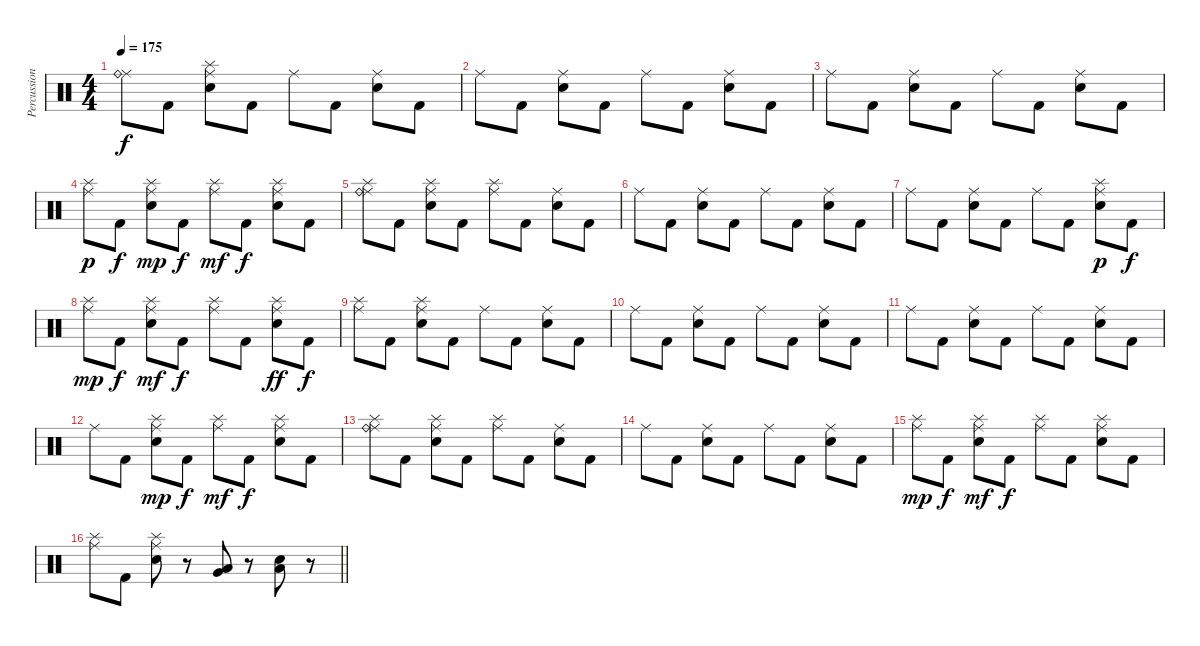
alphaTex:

\track ("Percussion" "Percussion") {instrument percussion}
\staff {score}
\articulation defaults
\ts (4 4)
\section ("" "")
\tempo 175
\clef neutral
\ks c
("Ride (middle)" "Ride (bell)").8{dy f} "Kick (hit) 2".8 ("Ride (middle)" "Splash (hit)" "Electric Snare (hit)").8 "Kick (hit) 2".8 "Ride (middle)".8 "Kick (hit) 2".8 ("Ride (middle)" "Electric Snare (hit)").8 "Kick (hit) 2".8 |
"Ride (middle)".8 "Kick (hit) 2".8 ("Ride (middle)" "Electric Snare (hit)").8 "Kick (hit) 2".8 "Ride (middle)".8 "Kick (hit) 2".8 ("Ride (middle)" "Electric Snare (hit)").8 "Kick (hit) 2".8 |
"Ride (middle)".8 "Kick (hit) 2".8 ("Ride (middle)" "Electric Snare (hit)").8 "Kick (hit) 2".8 "Ride (middle)".8 "Kick (hit) 2".8 ("Ride (middle)" "Electric Snare (hit)").8 "Kick (hit) 2".8 |
("Ride (middle)" "Splash (hit)").8{dy p} "Kick (hit) 2".8{dy f} ("Ride (middle)" "Splash (hit)" "Electric Snare (hit)").8{dy mp} "Kick (hit) 2".8{dy f} ("Ride (middle)" "Splash (hit)").8{dy mf} "Kick (hit) 2".8{dy f} ("Ride (middle)" "Splash (hit)" "Electric Snare (hit)").8 "Kick (hit) 2".8 |
("Ride (middle)" "Splash (hit)" "Ride (bell)").8 "Kick (hit) 2".8 ("Ride (middle)" "Splash (hit)" "Electric Snare (hit)").8 "Kick (hit) 2".8 ("Ride (middle)" "Splash (hit)").8 "Kick (hit) 2".8 ("Ride (middle)" "Electric Snare (hit)").8 "Kick (hit) 2".8 |
"Ride (middle)".8 "Kick (hit) 2".8 ("Ride (middle)" "Electric Snare (hit)").8 "Kick (hit) 2".8 "Ride (middle)".8 "Kick (hit) 2".8 ("Ride (middle)" "Electric Snare (hit)").8 "Kick (hit) 2".8 |
"Ride (middle)".8 "Kick (hit) 2".8 ("Ride (middle)" "Electric Snare (hit)").8 "Kick (hit) 2".8 "Ride (middle)".8 "Kick (hit) 2".8 ("Ride (middle)" "Splash (hit)" "Electric Snare (hit)").8{dy p} "Kick (hit) 2".8{dy f} |
("Ride (middle)" "Splash (hit)").8{dy mp} "Kick (hit) 2".8{dy f} ("Ride (middle)" "Splash (hit)" "Electric Snare (hit)").8{dy mf} "Kick (hit) 2".8{dy f} ("Ride (middle)" "Splash (hit)").8 "Kick (hit) 2".8 ("Ride (middle)" "Splash (hit)" "Electric Snare (hit)").8{dy ff} "Kick (hit) 2".8{dy f} |
("Ride (middle)" "Splash (hit)").8 "Kick (hit) 2".8 ("Ride (middle)" "Splash (hit)" "Electric Snare (hit)").8 "Kick (hit) 2".8 "Ride (middle)".8 "Kick (hit) 2".8 ("Ride (middle)" "Electric Snare (hit)").8 "Kick (hit) 2".8 |
"Ride (middle)".8 "Kick (hit) 2".8 ("Ride (middle)" "Electric Snare (hit)").8 "Kick (hit) 2".8 "Ride (middle)".8 "Kick (hit) 2".8 ("Ride (middle)" "Electric Snare (hit)").8 "Kick (hit) 2".8 |
"Ride (middle)".8 "Kick (hit) 2".8 ("Ride (middle)" "Electric Snare (hit)").8 "Kick (hit) 2".8 "Ride (middle)".8 "Kick (hit) 2".8 ("Ride (middle)" "Electric Snare (hit)").8 "Kick (hit) 2".8 |
"Ride (middle)".8 "Kick (hit) 2".8 ("Ride (middle)" "Splash (hit)" "Electric Snare (hit)").8{dy mp} "Kick (hit) 2".8{dy f} ("Ride (middle)" "Splash (hit)").8{dy mf} "Kick (hit) 2".8{dy f} ("Ride (middle)" "Splash (hit)" "Electric Snare (hit)").8 "Kick (hit) 2".8 |
("Ride (middle)" "Splash (hit)" "Ride (bell)").8 "Kick (hit) 2".8 ("Ride (middle)" "Splash (hit)" "Electric Snare (hit)").8 "Kick (hit) 2".8 ("Ride (middle)" "Splash (hit)").8 "Kick (hit) 2".8 ("Ride (middle)" "Electric Snare (hit)").8 "Kick (hit) 2".8 |
"Ride (middle)".8 "Kick (hit) 2".8 ("Ride (middle)" "Electric Snare (hit)").8 "Kick (hit) 2".8 "Ride (middle)".8 "Kick (hit) 2".8 ("Ride (middle)" "Electric Snare (hit)").8 "Kick (hit) 2".8 |
("Ride (middle)" "Splash (hit)").8{dy mp} "Kick (hit) 2".8{dy f} ("Ride (middle)" "Splash (hit)" "Electric Snare (hit)").8{dy mf} "Kick (hit) 2".8{dy f} ("Ride (middle)" "Splash (hit)").8 "Kick (hit) 2".8 ("Ride (middle)" "Splash (hit)" "Electric Snare (hit)").8 "Kick (hit) 2".8 |
\barLineRight lightlight
("Ride (middle)" "Splash (hit)").8 "Kick (hit) 2".8 ("Ride (middle)" "Splash (hit)" "Electric Snare (hit)").8 r.8 ("Very Low Tom (hit)" "Low Tom (hit)").8 r.8 ("Low Tom (hit)" "Electric Snare (hit)").8 r.8
